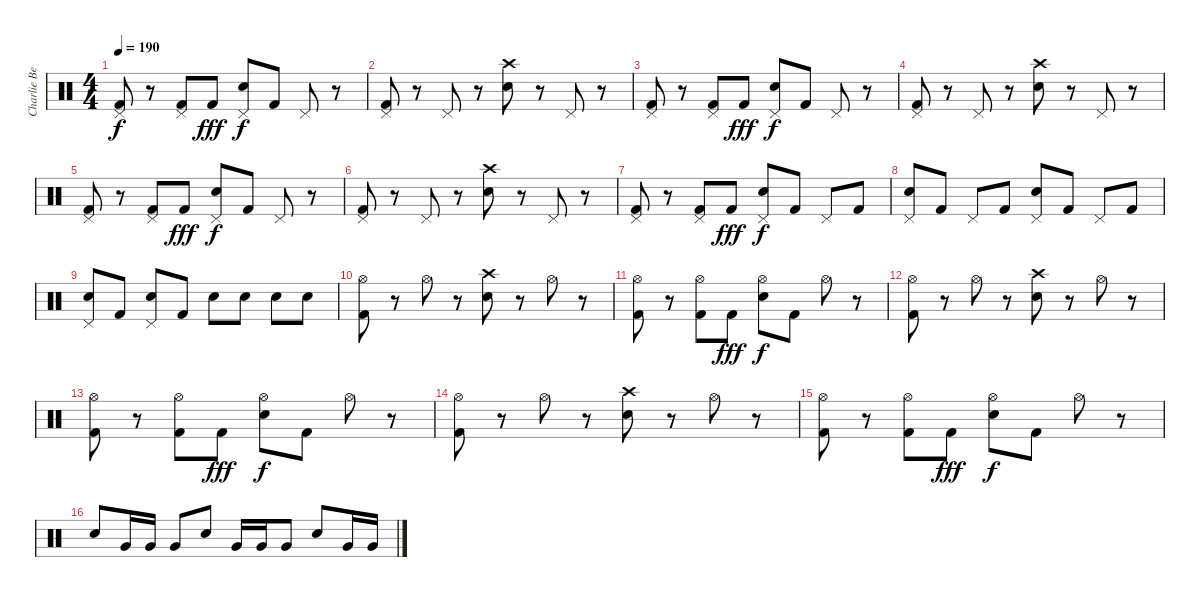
\track ("Charlie Benante" "Charlie Be") {instrument percussion}
\staff {score}
\articulation defaults
\ts (4 4)
\tempo 190
\clef neutral
\ks c
("Kick (hit) 2" "Pedal Hi-Hat (hit)").8{dy f} r.8 ("Kick (hit) 2" "Pedal Hi-Hat (hit)").8 "Kick (hit) 2".8{dy fff} ("Snare (hit) 2" "Pedal Hi-Hat (hit)").8{dy f} "Kick (hit) 2".8 "Pedal Hi-Hat (hit)".8 r.8 |
("Kick (hit) 2" "Pedal Hi-Hat (hit)").8 r.8 "Pedal Hi-Hat (hit)".8 r.8 ("Snare (hit) 2" "Crash high (hit)").8 r.8 "Pedal Hi-Hat (hit)".8 r.8 |
("Kick (hit) 2" "Pedal Hi-Hat (hit)").8 r.8 ("Kick (hit) 2" "Pedal Hi-Hat (hit)").8 "Kick (hit) 2".8{dy fff} ("Snare (hit) 2" "Pedal Hi-Hat (hit)").8{dy f} "Kick (hit) 2".8 "Pedal Hi-Hat (hit)".8 r.8 |
("Kick (hit) 2" "Pedal Hi-Hat (hit)").8 r.8 "Pedal Hi-Hat (hit)".8 r.8 ("Snare (hit) 2" "Crash high (hit)").8 r.8 "Pedal Hi-Hat (hit)".8 r.8 |
("Kick (hit) 2" "Pedal Hi-Hat (hit)").8 r.8 ("Kick (hit) 2" "Pedal Hi-Hat (hit)").8 "Kick (hit) 2".8{dy fff} ("Snare (hit) 2" "Pedal Hi-Hat (hit)").8{dy f} "Kick (hit) 2".8 "Pedal Hi-Hat (hit)".8 r.8 |
("Kick (hit) 2" "Pedal Hi-Hat (hit)").8 r.8 "Pedal Hi-Hat (hit)".8 r.8 ("Snare (hit) 2" "Crash high (hit)").8 r.8 "Pedal Hi-Hat (hit)".8 r.8 |
("Kick (hit) 2" "Pedal Hi-Hat (hit)").8 r.8 ("Kick (hit) 2" "Pedal Hi-Hat (hit)").8 "Kick (hit) 2".8{dy fff} ("Snare (hit) 2" "Pedal Hi-Hat (hit)").8{dy f} "Kick (hit) 2".8 "Pedal Hi-Hat (hit)".8 "Kick (hit) 2".8 |
("Snare (hit) 2" "Pedal Hi-Hat (hit)").8 "Kick (hit) 2".8 "Pedal Hi-Hat (hit)".8 "Kick (hit) 2".8 ("Snare (hit) 2" "Pedal Hi-Hat (hit)").8 "Kick (hit) 2".8 "Pedal Hi-Hat (hit)".8 "Kick (hit) 2".8 |
("Snare (hit) 2" "Pedal Hi-Hat (hit)").8 "Kick (hit) 2".8 ("Snare (hit) 2" "Pedal Hi-Hat (hit)").8 "Kick (hit) 2".8 "Snare (hit) 2".8 "Snare (hit) 2".8 "Snare (hit) 2".8 "Snare (hit) 2".8 |
("Kick (hit) 2" "Hi-Hat (open)").8 r.8 "Hi-Hat (open)".8 r.8 ("Snare (hit) 2" "Crash high (hit)").8 r.8 "Hi-Hat (open)".8 r.8 |
("Kick (hit) 2" "Hi-Hat (open)").8 r.8 ("Kick (hit) 2" "Hi-Hat (open)").8 "Kick (hit) 2".8{dy fff} ("Snare (hit) 2" "Hi-Hat (open)").8{dy f} "Kick (hit) 2".8 "Hi-Hat (open)".8 r.8 |
("Kick (hit) 2" "Hi-Hat (open)").8 r.8 "Hi-Hat (open)".8 r.8 ("Snare (hit) 2" "Crash high (hit)").8 r.8 "Hi-Hat (open)".8 r.8 |
("Kick (hit) 2" "Hi-Hat (open)").8 r.8 ("Kick (hit) 2" "Hi-Hat (open)").8 "Kick (hit) 2".8{dy fff} ("Snare (hit) 2" "Hi-Hat (open)").8{dy f} "Kick (hit) 2".8 "Hi-Hat (open)".8 r.8 |
("Kick (hit) 2" "Hi-Hat (open)").8 r.8 "Hi-Hat (open)".8 r.8 ("Snare (hit) 2" "Crash high (hit)").8 r.8 "Hi-Hat (open)".8 r.8 |
("Kick (hit) 2" "Hi-Hat (open)").8 r.8 ("Kick (hit) 2" "Hi-Hat (open)").8 "Kick (hit) 2".8{dy fff} ("Snare (hit) 2" "Hi-Hat (open)").8{dy f} "Kick (hit) 2".8 "Hi-Hat (open)".8 r.8 |
"Snare (hit) 2".8 "Very Low Tom (hit)".16 "Very Low Tom (hit)".16 "Very Low Tom (hit)".8 "Snare (hit) 2".8 "Very Low Tom (hit)".16 "Very Low Tom (hit)".16 "Very Low Tom (hit)".8 "Snare (hit) 2".8 "Very Low Tom (hit)".16 "Very Low Tom (hit)".16
